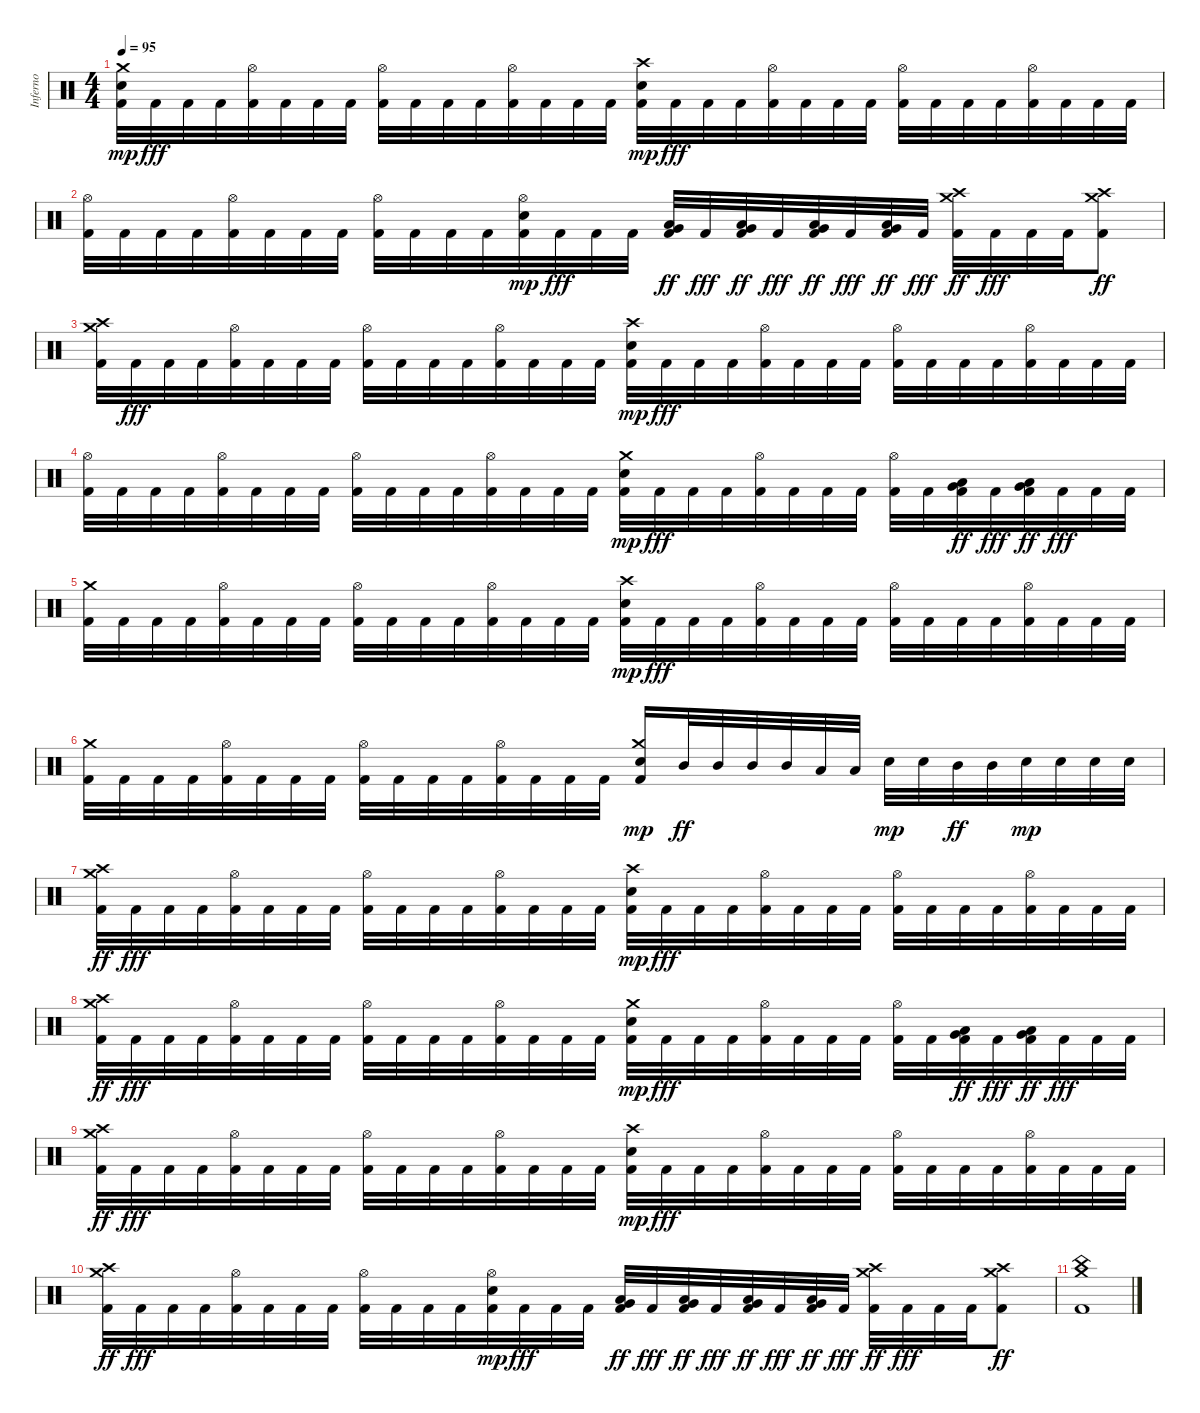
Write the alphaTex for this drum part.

\track ("Inferno" "Inferno") {instrument percussion}
\staff {score}
\articulation defaults
\ts (4 4)
\tempo 95
\clef neutral
\ks c
("Kick (hit) 2" "Crash medium (hit)" "Electric Snare (hit)").32{dy mp} "Kick (hit) 2".32{dy fff} "Kick (hit) 2".32 "Kick (hit) 2".32 ("Kick (hit) 2" "Hi-Hat (open)").32 "Kick (hit) 2".32 "Kick (hit) 2".32 "Kick (hit) 2".32 ("Kick (hit) 2" "Hi-Hat (open)").32 "Kick (hit) 2".32 "Kick (hit) 2".32 "Kick (hit) 2".32 ("Kick (hit) 2" "Hi-Hat (open)").32 "Kick (hit) 2".32 "Kick (hit) 2".32 "Kick (hit) 2".32 ("Kick (hit) 2" "Crash high (hit)" "Electric Snare (hit)").32{dy mp} "Kick (hit) 2".32{dy fff} "Kick (hit) 2".32 "Kick (hit) 2".32 ("Kick (hit) 2" "Hi-Hat (open)").32 "Kick (hit) 2".32 "Kick (hit) 2".32 "Kick (hit) 2".32 ("Kick (hit) 2" "Hi-Hat (open)").32 "Kick (hit) 2".32 "Kick (hit) 2".32 "Kick (hit) 2".32 ("Kick (hit) 2" "Hi-Hat (open)").32 "Kick (hit) 2".32 "Kick (hit) 2".32 "Kick (hit) 2".32 |
("Kick (hit) 2" "Hi-Hat (open)").32 "Kick (hit) 2".32 "Kick (hit) 2".32 "Kick (hit) 2".32 ("Kick (hit) 2" "Hi-Hat (open)").32 "Kick (hit) 2".32 "Kick (hit) 2".32 "Kick (hit) 2".32 ("Kick (hit) 2" "Hi-Hat (open)").32 "Kick (hit) 2".32 "Kick (hit) 2".32 "Kick (hit) 2".32 ("Kick (hit) 2" "Hi-Hat (open)" "Electric Snare (hit)").32{dy mp} "Kick (hit) 2".32{dy fff} "Kick (hit) 2".32 "Kick (hit) 2".32 ("Kick (hit) 2" "Low Tom (hit)" "Very Low Tom (hit)").32{dy ff} "Kick (hit) 2".32{dy fff} ("Kick (hit) 2" "Low Tom (hit)" "Very Low Tom (hit)").32{dy ff} "Kick (hit) 2".32{dy fff} ("Kick (hit) 2" "Low Tom (hit)" "Very Low Tom (hit)").32{dy ff} "Kick (hit) 2".32{dy fff} ("Kick (hit) 2" "Low Tom (hit)" "Very Low Tom (hit)").32{dy ff} "Kick (hit) 2".32{dy fff} ("Kick (hit) 2" "Crash medium (hit)" "Crash high (hit)").32{dy ff} "Kick (hit) 2".32{dy fff} "Kick (hit) 2".32 "Kick (hit) 2".32 ("Kick (hit) 2" "Crash medium (hit)" "Crash high (hit)").8{dy ff} |
("Kick (hit) 2" "Crash high (hit)" "Crash medium (hit)").32 "Kick (hit) 2".32{dy fff} "Kick (hit) 2".32 "Kick (hit) 2".32 ("Kick (hit) 2" "Hi-Hat (open)").32 "Kick (hit) 2".32 "Kick (hit) 2".32 "Kick (hit) 2".32 ("Kick (hit) 2" "Hi-Hat (open)").32 "Kick (hit) 2".32 "Kick (hit) 2".32 "Kick (hit) 2".32 ("Kick (hit) 2" "Hi-Hat (open)").32 "Kick (hit) 2".32 "Kick (hit) 2".32 "Kick (hit) 2".32 ("Kick (hit) 2" "Crash high (hit)" "Electric Snare (hit)").32{dy mp} "Kick (hit) 2".32{dy fff} "Kick (hit) 2".32 "Kick (hit) 2".32 ("Kick (hit) 2" "Hi-Hat (open)").32 "Kick (hit) 2".32 "Kick (hit) 2".32 "Kick (hit) 2".32 ("Kick (hit) 2" "Hi-Hat (open)").32 "Kick (hit) 2".32 "Kick (hit) 2".32 "Kick (hit) 2".32 ("Kick (hit) 2" "Hi-Hat (open)").32 "Kick (hit) 2".32 "Kick (hit) 2".32 "Kick (hit) 2".32 |
("Kick (hit) 2" "Hi-Hat (open)").32 "Kick (hit) 2".32 "Kick (hit) 2".32 "Kick (hit) 2".32 ("Kick (hit) 2" "Hi-Hat (open)").32 "Kick (hit) 2".32 "Kick (hit) 2".32 "Kick (hit) 2".32 ("Kick (hit) 2" "Hi-Hat (open)").32 "Kick (hit) 2".32 "Kick (hit) 2".32 "Kick (hit) 2".32 ("Kick (hit) 2" "Hi-Hat (open)").32 "Kick (hit) 2".32 "Kick (hit) 2".32 "Kick (hit) 2".32 ("Kick (hit) 2" "Crash medium (hit)" "Electric Snare (hit)").32{dy mp} "Kick (hit) 2".32{dy fff} "Kick (hit) 2".32 "Kick (hit) 2".32 ("Kick (hit) 2" "Hi-Hat (open)").32 "Kick (hit) 2".32 "Kick (hit) 2".32 "Kick (hit) 2".32 ("Kick (hit) 2" "Hi-Hat (open)").32 "Kick (hit) 2".32 ("Kick (hit) 2" "Low Tom (hit)" "Very Low Tom (hit)").32{dy ff} "Kick (hit) 2".32{dy fff} ("Kick (hit) 2" "Low Tom (hit)" "Very Low Tom (hit)").32{dy ff} "Kick (hit) 2".32{dy fff} "Kick (hit) 2".32 "Kick (hit) 2".32 |
("Kick (hit) 2" "Crash medium (hit)").32 "Kick (hit) 2".32 "Kick (hit) 2".32 "Kick (hit) 2".32 ("Kick (hit) 2" "Hi-Hat (open)").32 "Kick (hit) 2".32 "Kick (hit) 2".32 "Kick (hit) 2".32 ("Kick (hit) 2" "Hi-Hat (open)").32 "Kick (hit) 2".32 "Kick (hit) 2".32 "Kick (hit) 2".32 ("Kick (hit) 2" "Hi-Hat (open)").32 "Kick (hit) 2".32 "Kick (hit) 2".32 "Kick (hit) 2".32 ("Kick (hit) 2" "Crash high (hit)" "Electric Snare (hit)").32{dy mp} "Kick (hit) 2".32{dy fff} "Kick (hit) 2".32 "Kick (hit) 2".32 ("Kick (hit) 2" "Hi-Hat (open)").32 "Kick (hit) 2".32 "Kick (hit) 2".32 "Kick (hit) 2".32 ("Kick (hit) 2" "Hi-Hat (open)").32 "Kick (hit) 2".32 "Kick (hit) 2".32 "Kick (hit) 2".32 ("Kick (hit) 2" "Hi-Hat (open)").32 "Kick (hit) 2".32 "Kick (hit) 2".32 "Kick (hit) 2".32 |
("Kick (hit) 2" "Crash medium (hit)").32 "Kick (hit) 2".32 "Kick (hit) 2".32 "Kick (hit) 2".32 ("Kick (hit) 2" "Hi-Hat (open)").32 "Kick (hit) 2".32 "Kick (hit) 2".32 "Kick (hit) 2".32 ("Kick (hit) 2" "Hi-Hat (open)").32 "Kick (hit) 2".32 "Kick (hit) 2".32 "Kick (hit) 2".32 ("Kick (hit) 2" "Hi-Hat (open)").32 "Kick (hit) 2".32 "Kick (hit) 2".32 "Kick (hit) 2".32 ("Kick (hit) 2" "Crash medium (hit)" "Electric Snare (hit)").16{dy mp} "Mid Tom (hit)".32{dy ff} "Mid Tom (hit)".32 "Mid Tom (hit)".32 "Mid Tom (hit)".32 "Low Tom (hit)".32 "Low Tom (hit)".32 "Electric Snare (hit)".32{dy mp} "Electric Snare (hit)".32 "Mid Tom (hit)".32{dy ff} "Mid Tom (hit)".32 "Electric Snare (hit)".32{dy mp} "Electric Snare (hit)".32 "Electric Snare (hit)".32 "Electric Snare (hit)".32 |
("Kick (hit) 2" "Crash high (hit)" "Crash medium (hit)").32{dy ff} "Kick (hit) 2".32{dy fff} "Kick (hit) 2".32 "Kick (hit) 2".32 ("Kick (hit) 2" "Hi-Hat (open)").32 "Kick (hit) 2".32 "Kick (hit) 2".32 "Kick (hit) 2".32 ("Kick (hit) 2" "Hi-Hat (open)").32 "Kick (hit) 2".32 "Kick (hit) 2".32 "Kick (hit) 2".32 ("Kick (hit) 2" "Hi-Hat (open)").32 "Kick (hit) 2".32 "Kick (hit) 2".32 "Kick (hit) 2".32 ("Kick (hit) 2" "Crash high (hit)" "Electric Snare (hit)").32{dy mp} "Kick (hit) 2".32{dy fff} "Kick (hit) 2".32 "Kick (hit) 2".32 ("Kick (hit) 2" "Hi-Hat (open)").32 "Kick (hit) 2".32 "Kick (hit) 2".32 "Kick (hit) 2".32 ("Kick (hit) 2" "Hi-Hat (open)").32 "Kick (hit) 2".32 "Kick (hit) 2".32 "Kick (hit) 2".32 ("Kick (hit) 2" "Hi-Hat (open)").32 "Kick (hit) 2".32 "Kick (hit) 2".32 "Kick (hit) 2".32 |
("Kick (hit) 2" "Crash high (hit)" "Crash medium (hit)").32{dy ff} "Kick (hit) 2".32{dy fff} "Kick (hit) 2".32 "Kick (hit) 2".32 ("Kick (hit) 2" "Hi-Hat (open)").32 "Kick (hit) 2".32 "Kick (hit) 2".32 "Kick (hit) 2".32 ("Kick (hit) 2" "Hi-Hat (open)").32 "Kick (hit) 2".32 "Kick (hit) 2".32 "Kick (hit) 2".32 ("Kick (hit) 2" "Hi-Hat (open)").32 "Kick (hit) 2".32 "Kick (hit) 2".32 "Kick (hit) 2".32 ("Kick (hit) 2" "Crash medium (hit)" "Electric Snare (hit)").32{dy mp} "Kick (hit) 2".32{dy fff} "Kick (hit) 2".32 "Kick (hit) 2".32 ("Kick (hit) 2" "Hi-Hat (open)").32 "Kick (hit) 2".32 "Kick (hit) 2".32 "Kick (hit) 2".32 ("Kick (hit) 2" "Hi-Hat (open)").32 "Kick (hit) 2".32 ("Kick (hit) 2" "Low Tom (hit)" "Very Low Tom (hit)").32{dy ff} "Kick (hit) 2".32{dy fff} ("Kick (hit) 2" "Low Tom (hit)" "Very Low Tom (hit)").32{dy ff} "Kick (hit) 2".32{dy fff} "Kick (hit) 2".32 "Kick (hit) 2".32 |
("Kick (hit) 2" "Crash medium (hit)" "Crash high (hit)").32{dy ff} "Kick (hit) 2".32{dy fff} "Kick (hit) 2".32 "Kick (hit) 2".32 ("Kick (hit) 2" "Hi-Hat (open)").32 "Kick (hit) 2".32 "Kick (hit) 2".32 "Kick (hit) 2".32 ("Kick (hit) 2" "Hi-Hat (open)").32 "Kick (hit) 2".32 "Kick (hit) 2".32 "Kick (hit) 2".32 ("Kick (hit) 2" "Hi-Hat (open)").32 "Kick (hit) 2".32 "Kick (hit) 2".32 "Kick (hit) 2".32 ("Kick (hit) 2" "Crash high (hit)" "Electric Snare (hit)").32{dy mp} "Kick (hit) 2".32{dy fff} "Kick (hit) 2".32 "Kick (hit) 2".32 ("Kick (hit) 2" "Hi-Hat (open)").32 "Kick (hit) 2".32 "Kick (hit) 2".32 "Kick (hit) 2".32 ("Kick (hit) 2" "Hi-Hat (open)").32 "Kick (hit) 2".32 "Kick (hit) 2".32 "Kick (hit) 2".32 ("Kick (hit) 2" "Hi-Hat (open)").32 "Kick (hit) 2".32 "Kick (hit) 2".32 "Kick (hit) 2".32 |
("Kick (hit) 2" "Crash high (hit)" "Crash medium (hit)").32{dy ff} "Kick (hit) 2".32{dy fff} "Kick (hit) 2".32 "Kick (hit) 2".32 ("Kick (hit) 2" "Hi-Hat (open)").32 "Kick (hit) 2".32 "Kick (hit) 2".32 "Kick (hit) 2".32 ("Kick (hit) 2" "Hi-Hat (open)").32 "Kick (hit) 2".32 "Kick (hit) 2".32 "Kick (hit) 2".32 ("Kick (hit) 2" "Hi-Hat (open)" "Electric Snare (hit)").32{dy mp} "Kick (hit) 2".32{dy fff} "Kick (hit) 2".32 "Kick (hit) 2".32 ("Kick (hit) 2" "Low Tom (hit)" "Very Low Tom (hit)").32{dy ff} "Kick (hit) 2".32{dy fff} ("Kick (hit) 2" "Low Tom (hit)" "Very Low Tom (hit)").32{dy ff} "Kick (hit) 2".32{dy fff} ("Kick (hit) 2" "Low Tom (hit)" "Very Low Tom (hit)").32{dy ff} "Kick (hit) 2".32{dy fff} ("Kick (hit) 2" "Low Tom (hit)" "Very Low Tom (hit)").32{dy ff} "Kick (hit) 2".32{dy fff} ("Kick (hit) 2" "Crash medium (hit)" "Crash high (hit)").32{dy ff} "Kick (hit) 2".32{dy fff} "Kick (hit) 2".32 "Kick (hit) 2".32 ("Kick (hit) 2" "Crash medium (hit)" "Crash high (hit)").8{dy ff} |
("Kick (hit) 2" "China (hit)" "Crash medium (hit)").1
